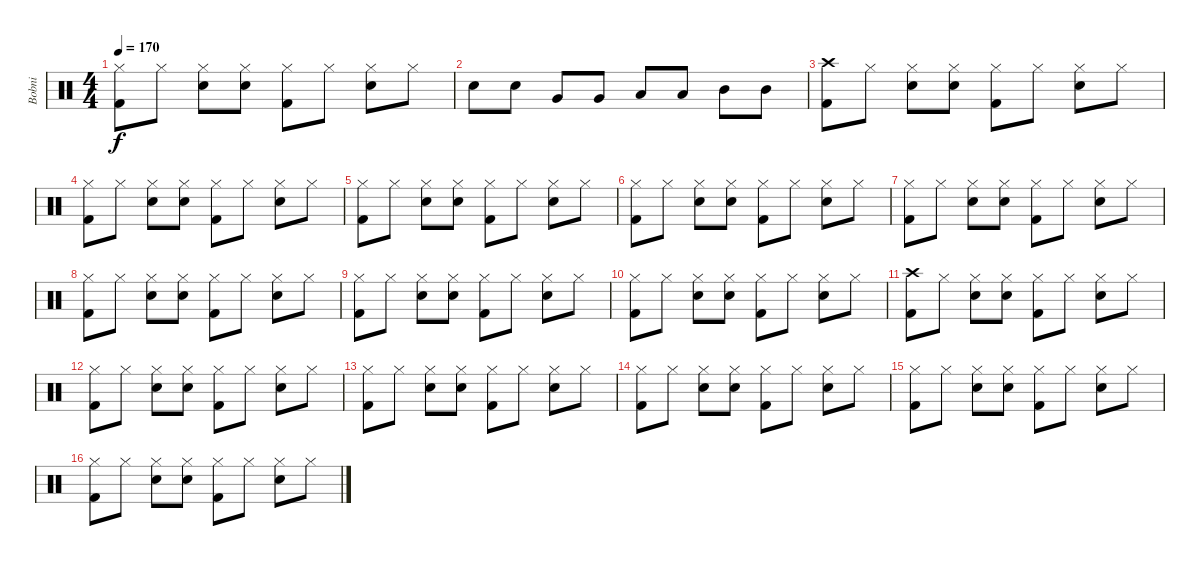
\track ("Bobni" "Bobni") {instrument percussion}
\staff {score}
\articulation defaults
\ts (4 4)
\tempo 170
\clef neutral
\ks c
("Hi-Hat (closed)" "Kick (hit) 2").8{dy f} "Hi-Hat (closed)".8 ("Hi-Hat (closed)" "Snare (hit) 2").8 ("Hi-Hat (closed)" "Snare (hit) 2").8 ("Hi-Hat (closed)" "Kick (hit) 2").8 "Hi-Hat (closed)".8 ("Hi-Hat (closed)" "Snare (hit) 2").8 "Hi-Hat (closed)".8 |
"Snare (hit) 2".8 "Snare (hit) 2".8 "Very Low Tom (hit)".8 "Very Low Tom (hit)".8 "Low Tom (hit)".8 "Low Tom (hit)".8 "Mid Tom (hit)".8 "Mid Tom (hit)".8 |
("Crash high (hit)" "Kick (hit) 2").8 "Hi-Hat (closed)".8 ("Hi-Hat (closed)" "Snare (hit) 2").8 ("Hi-Hat (closed)" "Snare (hit) 2").8 ("Hi-Hat (closed)" "Kick (hit) 2").8 "Hi-Hat (closed)".8 ("Hi-Hat (closed)" "Snare (hit) 2").8 "Hi-Hat (closed)".8 |
("Hi-Hat (closed)" "Kick (hit) 2").8 "Hi-Hat (closed)".8 ("Hi-Hat (closed)" "Snare (hit) 2").8 ("Hi-Hat (closed)" "Snare (hit) 2").8 ("Hi-Hat (closed)" "Kick (hit) 2").8 "Hi-Hat (closed)".8 ("Hi-Hat (closed)" "Snare (hit) 2").8 "Hi-Hat (closed)".8 |
("Hi-Hat (closed)" "Kick (hit) 2").8 "Hi-Hat (closed)".8 ("Hi-Hat (closed)" "Snare (hit) 2").8 ("Hi-Hat (closed)" "Snare (hit) 2").8 ("Hi-Hat (closed)" "Kick (hit) 2").8 "Hi-Hat (closed)".8 ("Hi-Hat (closed)" "Snare (hit) 2").8 "Hi-Hat (closed)".8 |
("Hi-Hat (closed)" "Kick (hit) 2").8 "Hi-Hat (closed)".8 ("Hi-Hat (closed)" "Snare (hit) 2").8 ("Hi-Hat (closed)" "Snare (hit) 2").8 ("Hi-Hat (closed)" "Kick (hit) 2").8 "Hi-Hat (closed)".8 ("Hi-Hat (closed)" "Snare (hit) 2").8 "Hi-Hat (closed)".8 |
("Hi-Hat (closed)" "Kick (hit) 2").8 "Hi-Hat (closed)".8 ("Hi-Hat (closed)" "Snare (hit) 2").8 ("Hi-Hat (closed)" "Snare (hit) 2").8 ("Hi-Hat (closed)" "Kick (hit) 2").8 "Hi-Hat (closed)".8 ("Hi-Hat (closed)" "Snare (hit) 2").8 "Hi-Hat (closed)".8 |
("Hi-Hat (closed)" "Kick (hit) 2").8 "Hi-Hat (closed)".8 ("Hi-Hat (closed)" "Snare (hit) 2").8 ("Hi-Hat (closed)" "Snare (hit) 2").8 ("Hi-Hat (closed)" "Kick (hit) 2").8 "Hi-Hat (closed)".8 ("Hi-Hat (closed)" "Snare (hit) 2").8 "Hi-Hat (closed)".8 |
("Hi-Hat (closed)" "Kick (hit) 2").8 "Hi-Hat (closed)".8 ("Hi-Hat (closed)" "Snare (hit) 2").8 ("Hi-Hat (closed)" "Snare (hit) 2").8 ("Hi-Hat (closed)" "Kick (hit) 2").8 "Hi-Hat (closed)".8 ("Hi-Hat (closed)" "Snare (hit) 2").8 "Hi-Hat (closed)".8 |
("Hi-Hat (closed)" "Kick (hit) 2").8 "Hi-Hat (closed)".8 ("Hi-Hat (closed)" "Snare (hit) 2").8 ("Hi-Hat (closed)" "Snare (hit) 2").8 ("Hi-Hat (closed)" "Kick (hit) 2").8 "Hi-Hat (closed)".8 ("Hi-Hat (closed)" "Snare (hit) 2").8 "Hi-Hat (closed)".8 |
("Crash high (hit)" "Kick (hit) 2").8 "Hi-Hat (closed)".8 ("Hi-Hat (closed)" "Snare (hit) 2").8 ("Hi-Hat (closed)" "Snare (hit) 2").8 ("Hi-Hat (closed)" "Kick (hit) 2").8 "Hi-Hat (closed)".8 ("Hi-Hat (closed)" "Snare (hit) 2").8 "Hi-Hat (closed)".8 |
("Hi-Hat (closed)" "Kick (hit) 2").8 "Hi-Hat (closed)".8 ("Hi-Hat (closed)" "Snare (hit) 2").8 ("Hi-Hat (closed)" "Snare (hit) 2").8 ("Hi-Hat (closed)" "Kick (hit) 2").8 "Hi-Hat (closed)".8 ("Hi-Hat (closed)" "Snare (hit) 2").8 "Hi-Hat (closed)".8 |
("Hi-Hat (closed)" "Kick (hit) 2").8 "Hi-Hat (closed)".8 ("Hi-Hat (closed)" "Snare (hit) 2").8 ("Hi-Hat (closed)" "Snare (hit) 2").8 ("Hi-Hat (closed)" "Kick (hit) 2").8 "Hi-Hat (closed)".8 ("Hi-Hat (closed)" "Snare (hit) 2").8 "Hi-Hat (closed)".8 |
("Hi-Hat (closed)" "Kick (hit) 2").8 "Hi-Hat (closed)".8 ("Hi-Hat (closed)" "Snare (hit) 2").8 ("Hi-Hat (closed)" "Snare (hit) 2").8 ("Hi-Hat (closed)" "Kick (hit) 2").8 "Hi-Hat (closed)".8 ("Hi-Hat (closed)" "Snare (hit) 2").8 "Hi-Hat (closed)".8 |
("Hi-Hat (closed)" "Kick (hit) 2").8 "Hi-Hat (closed)".8 ("Hi-Hat (closed)" "Snare (hit) 2").8 ("Hi-Hat (closed)" "Snare (hit) 2").8 ("Hi-Hat (closed)" "Kick (hit) 2").8 "Hi-Hat (closed)".8 ("Hi-Hat (closed)" "Snare (hit) 2").8 "Hi-Hat (closed)".8 |
("Hi-Hat (closed)" "Kick (hit) 2").8 "Hi-Hat (closed)".8 ("Hi-Hat (closed)" "Snare (hit) 2").8 ("Hi-Hat (closed)" "Snare (hit) 2").8 ("Hi-Hat (closed)" "Kick (hit) 2").8 "Hi-Hat (closed)".8 ("Hi-Hat (closed)" "Snare (hit) 2").8 "Hi-Hat (closed)".8
